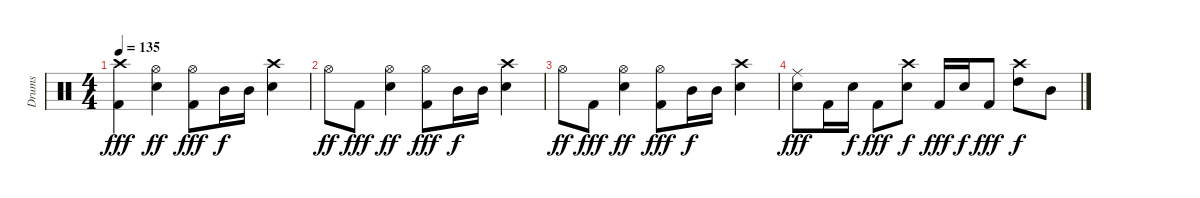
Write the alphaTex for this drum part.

\track ("Drums" "Drums") {instrument percussion}
\staff {score}
\articulation defaults
\ts (4 4)
\tempo 135
\clef neutral
\ks c
("Crash high (hit)" "Kick (hit) 2").4{dy fff} ("Hi-Hat (open)" "Snare (hit) 2").4{dy ff} ("Hi-Hat (open)" "Kick (hit) 2").8{dy fff} "Mid Tom (hit)".16{dy f} "Mid Tom (hit)".16 ("Crash high (hit)" "Snare (hit) 2").4 |
"Hi-Hat (open)".8{dy ff volume 0} "Kick (hit) 2".8{dy fff} ("Hi-Hat (open)" "Snare (hit) 2").4{dy ff} ("Hi-Hat (open)" "Kick (hit) 2").8{dy fff} "Mid Tom (hit)".16{dy f} "Mid Tom (hit)".16 ("Crash high (hit)" "Snare (hit) 2").4 |
"Hi-Hat (open)".8{dy ff} "Kick (hit) 2".8{dy fff} ("Hi-Hat (open)" "Snare (hit) 2").4{dy ff} ("Hi-Hat (open)" "Kick (hit) 2").8{dy fff} "Mid Tom (hit)".16{dy f} "Mid Tom (hit)".16 ("Crash high (hit)" "Snare (hit) 2").4 |
("Ride (middle)" "Snare (hit) 2").8{dy fff} "Kick (hit) 2".16 "Snare (hit) 2".16{dy f} "Kick (hit) 2".8{dy fff} ("Crash high (hit)" "Snare (hit) 2").8{dy f} "Kick (hit) 2".16{dy fff} "Snare (hit) 2".16{dy f} "Kick (hit) 2".8{dy fff} ("Crash high (hit)" "High Tom (hit)").8{dy f} "Mid Tom (hit)".8
